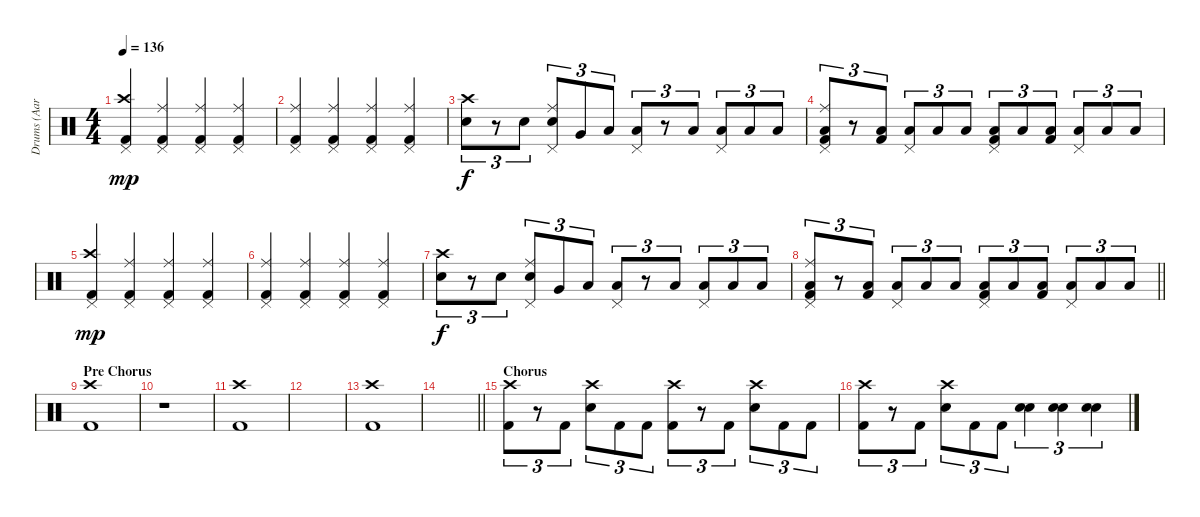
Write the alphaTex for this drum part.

\track ("Drums (Aaron Solowoniuk)" "Drums (Aar") {instrument percussion}
\staff {score}
\articulation defaults
\ts (4 4)
\tempo 136
\clef neutral
\ks c
("Pedal Hi-Hat (hit)" "Crash high (hit)" "Kick (hit) 2").4{dy mp} ("Pedal Hi-Hat (hit)" "Ride (middle)" "Kick (hit) 2").4 ("Pedal Hi-Hat (hit)" "Ride (middle)" "Kick (hit) 2").4 ("Pedal Hi-Hat (hit)" "Ride (middle)" "Kick (hit) 2").4 |
("Pedal Hi-Hat (hit)" "Ride (middle)" "Kick (hit) 2").4 ("Pedal Hi-Hat (hit)" "Ride (middle)" "Kick (hit) 2").4 ("Pedal Hi-Hat (hit)" "Ride (middle)" "Kick (hit) 2").4 ("Pedal Hi-Hat (hit)" "Ride (middle)" "Kick (hit) 2").4 |
("Crash high (hit)" "Electric Snare (hit)").8{tu (3 2) dy f} r.8{tu (3 2)} "Electric Snare (hit)".8{tu (3 2)} ("Ride (middle)" "Pedal Hi-Hat (hit)" "Electric Snare (hit)").8{tu (3 2)} "Very Low Tom (hit)".8{tu (3 2)} "Low Floor Tom (hit)".8{tu (3 2)} ("Pedal Hi-Hat (hit)" "Low Floor Tom (hit)").8{tu (3 2)} r.8{tu (3 2)} "Low Floor Tom (hit)".8{tu (3 2)} ("Pedal Hi-Hat (hit)" "Low Floor Tom (hit)").8{tu (3 2)} "Low Floor Tom (hit)".8{tu (3 2)} "Low Floor Tom (hit)".8{tu (3 2)} |
("Ride (middle)" "Pedal Hi-Hat (hit)" "Low Floor Tom (hit)" "Kick (hit) 2").8{tu (3 2)} r.8{tu (3 2)} ("Low Floor Tom (hit)" "Kick (hit) 2").8{tu (3 2)} ("Pedal Hi-Hat (hit)" "Low Floor Tom (hit)").8{tu (3 2)} "Low Floor Tom (hit)".8{tu (3 2)} "Low Floor Tom (hit)".8{tu (3 2)} ("Pedal Hi-Hat (hit)" "Low Floor Tom (hit)" "Kick (hit) 2").8{tu (3 2)} "Low Floor Tom (hit)".8{tu (3 2)} ("Low Floor Tom (hit)" "Kick (hit) 2").8{tu (3 2)} ("Pedal Hi-Hat (hit)" "Low Floor Tom (hit)").8{tu (3 2)} "Low Floor Tom (hit)".8{tu (3 2)} "Low Floor Tom (hit)".8{tu (3 2)} |
("Pedal Hi-Hat (hit)" "Crash high (hit)" "Kick (hit) 2").4{dy mp} ("Pedal Hi-Hat (hit)" "Ride (middle)" "Kick (hit) 2").4 ("Pedal Hi-Hat (hit)" "Ride (middle)" "Kick (hit) 2").4 ("Pedal Hi-Hat (hit)" "Ride (middle)" "Kick (hit) 2").4 |
("Pedal Hi-Hat (hit)" "Ride (middle)" "Kick (hit) 2").4 ("Pedal Hi-Hat (hit)" "Ride (middle)" "Kick (hit) 2").4 ("Pedal Hi-Hat (hit)" "Ride (middle)" "Kick (hit) 2").4 ("Pedal Hi-Hat (hit)" "Ride (middle)" "Kick (hit) 2").4 |
("Crash high (hit)" "Electric Snare (hit)").8{tu (3 2) dy f} r.8{tu (3 2)} "Electric Snare (hit)".8{tu (3 2)} ("Ride (middle)" "Pedal Hi-Hat (hit)" "Electric Snare (hit)").8{tu (3 2)} "Very Low Tom (hit)".8{tu (3 2)} "Low Floor Tom (hit)".8{tu (3 2)} ("Pedal Hi-Hat (hit)" "Low Floor Tom (hit)").8{tu (3 2)} r.8{tu (3 2)} "Low Floor Tom (hit)".8{tu (3 2)} ("Pedal Hi-Hat (hit)" "Low Floor Tom (hit)").8{tu (3 2)} "Low Floor Tom (hit)".8{tu (3 2)} "Low Floor Tom (hit)".8{tu (3 2)} |
\barLineRight lightlight
("Ride (middle)" "Pedal Hi-Hat (hit)" "Low Floor Tom (hit)" "Kick (hit) 2").8{tu (3 2)} r.8{tu (3 2)} ("Low Floor Tom (hit)" "Kick (hit) 2").8{tu (3 2)} ("Pedal Hi-Hat (hit)" "Low Floor Tom (hit)").8{tu (3 2)} "Low Floor Tom (hit)".8{tu (3 2)} "Low Floor Tom (hit)".8{tu (3 2)} ("Pedal Hi-Hat (hit)" "Low Floor Tom (hit)" "Kick (hit) 2").8{tu (3 2)} "Low Floor Tom (hit)".8{tu (3 2)} ("Low Floor Tom (hit)" "Kick (hit) 2").8{tu (3 2)} ("Pedal Hi-Hat (hit)" "Low Floor Tom (hit)").8{tu (3 2)} "Low Floor Tom (hit)".8{tu (3 2)} "Low Floor Tom (hit)".8{tu (3 2)} |
\section ("" "Pre Chorus")
("Kick (hit) 2" "Crash high (hit)").1 |
r.1 |
("Kick (hit) 2" "Crash high (hit)").1 |
|
("Kick (hit) 2" "Crash high (hit)").1 |
\barLineRight lightlight
|
\section ("" "Chorus")
("Kick (hit) 2" "Crash high (hit)").8{tu (3 2)} r.8{tu (3 2)} "Kick (hit) 2".8{tu (3 2)} ("Electric Snare (hit)" "Crash high (hit)").8{tu (3 2)} "Kick (hit) 2".8{tu (3 2)} "Kick (hit) 2".8{tu (3 2)} ("Kick (hit) 2" "Crash high (hit)").8{tu (3 2)} r.8{tu (3 2)} "Kick (hit) 2".8{tu (3 2)} ("Electric Snare (hit)" "Crash high (hit)").8{tu (3 2)} "Kick (hit) 2".8{tu (3 2)} "Kick (hit) 2".8{tu (3 2)} |
("Kick (hit) 2" "Crash high (hit)").8{tu (3 2)} r.8{tu (3 2)} "Kick (hit) 2".8{tu (3 2)} ("Electric Snare (hit)" "Crash high (hit)").8{tu (3 2)} "Kick (hit) 2".8{tu (3 2)} "Kick (hit) 2".8{tu (3 2)} ("Electric Snare (hit)" "Electric Snare (hit)").4{tu (3 2)} ("Electric Snare (hit)" "Electric Snare (hit)").4{tu (3 2)} ("Electric Snare (hit)" "Electric Snare (hit)").4{tu (3 2)}
